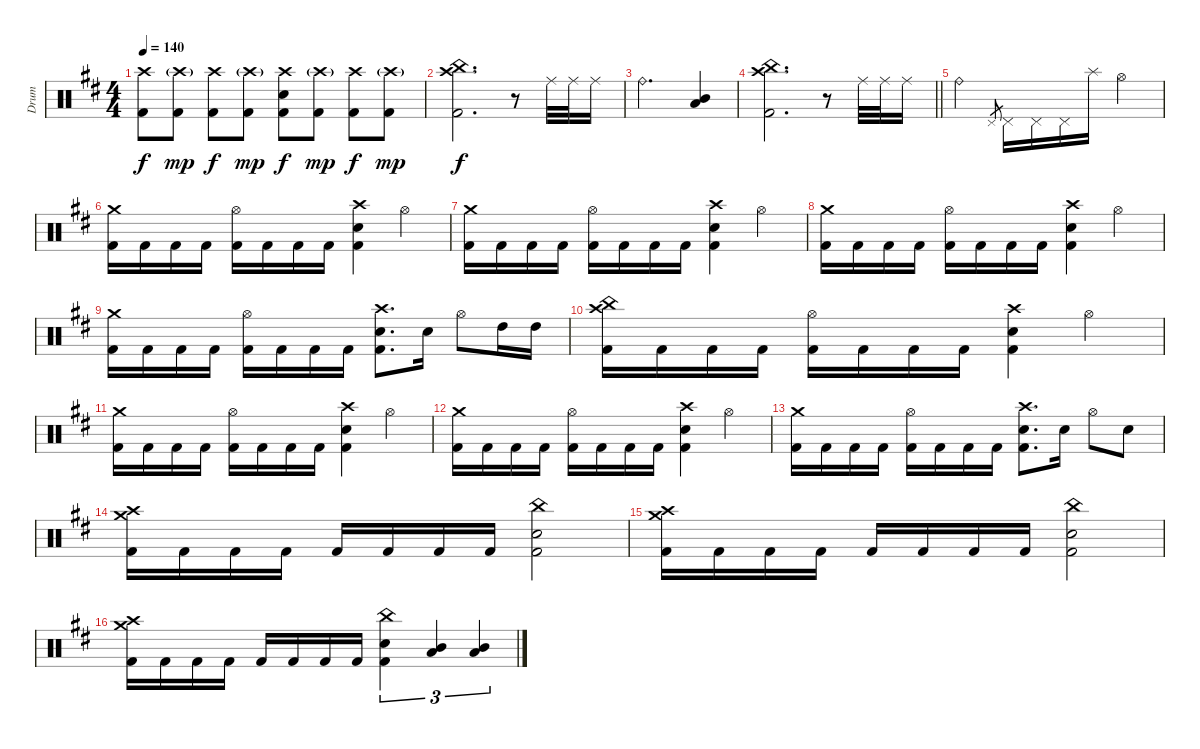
\track ("Drum" "Drum") {instrument percussion}
\staff {score}
\articulation defaults
\ts (4 4)
\tempo 140
\clef neutral
\ks bminor
("Crash high (hit)" "Kick (hit) 2").8{dy f} ("Crash high (hit)"{g} "Kick (hit) 2").8{dy mp} ("Crash high (hit)" "Kick (hit) 2").8{dy f} ("Crash high (hit)"{g} "Kick (hit) 2").8{dy mp} ("Crash high (hit)" "Snare (hit) 2" "Kick (hit) 2").8{dy f} ("Crash high (hit)"{g} "Kick (hit) 2").8{dy mp} ("Crash high (hit)" "Kick (hit) 2").8{dy f} ("Crash high (hit)"{g} "Kick (hit) 2").8{dy mp} |
("Crash high (hit)" "China (hit)" "Kick (hit) 2").2{d dy f} r.8 "Ride (middle)".32 "Ride (middle)".32 "Ride (middle)".16 |
"Ride (bell)".2{d} ("Low Tom (hit)" "Mid Tom (hit)").4 |
\barLineRight lightlight
("Crash high (hit)" "China (hit)" "Kick (hit) 2").2{d} r.8 "Ride (middle)".32 "Ride (middle)".32 "Ride (middle)".16 |
"Ride (bell)".2 "Pedal Hi-Hat (hit)".8{gr} "Pedal Hi-Hat (hit)".16 "Pedal Hi-Hat (hit)".16 "Pedal Hi-Hat (hit)".16 "Splash (hit)".16 "Hi-Hat (open)".4 |
("Crash medium (hit)" "Kick (hit) 2").16 "Kick (hit) 2".16 "Kick (hit) 2".16 "Kick (hit) 2".16 ("Hi-Hat (open)" "Kick (hit) 2").16 "Kick (hit) 2".16 "Kick (hit) 2".16 "Kick (hit) 2".16 ("Crash high (hit)" "Snare (hit) 2" "Kick (hit) 2").4 "Hi-Hat (open)".4 |
("Crash medium (hit)" "Kick (hit) 2").16 "Kick (hit) 2".16 "Kick (hit) 2".16 "Kick (hit) 2".16 ("Hi-Hat (open)" "Kick (hit) 2").16 "Kick (hit) 2".16 "Kick (hit) 2".16 "Kick (hit) 2".16 ("Crash high (hit)" "Snare (hit) 2" "Kick (hit) 2").4 "Hi-Hat (open)".4 |
("Crash medium (hit)" "Kick (hit) 2").16 "Kick (hit) 2".16 "Kick (hit) 2".16 "Kick (hit) 2".16 ("Hi-Hat (open)" "Kick (hit) 2").16 "Kick (hit) 2".16 "Kick (hit) 2".16 "Kick (hit) 2".16 ("Crash high (hit)" "Snare (hit) 2" "Kick (hit) 2").4 "Hi-Hat (open)".4 |
("Crash medium (hit)" "Kick (hit) 2").16 "Kick (hit) 2".16 "Kick (hit) 2".16 "Kick (hit) 2".16 ("Hi-Hat (open)" "Kick (hit) 2").16 "Kick (hit) 2".16 "Kick (hit) 2".16 "Kick (hit) 2".16 ("Crash high (hit)" "Snare (hit) 2" "Kick (hit) 2").8{d} "Snare (hit) 2".16 "Hi-Hat (open)".8 "High Tom (hit)".16 "High Tom (hit)".16 |
("Crash high (hit)" "China (hit)" "Kick (hit) 2").16 "Kick (hit) 2".16 "Kick (hit) 2".16 "Kick (hit) 2".16 ("Hi-Hat (open)" "Kick (hit) 2").16 "Kick (hit) 2".16 "Kick (hit) 2".16 "Kick (hit) 2".16 ("Crash high (hit)" "Snare (hit) 2" "Kick (hit) 2").4 "Hi-Hat (open)".4 |
("Crash medium (hit)" "Kick (hit) 2").16 "Kick (hit) 2".16 "Kick (hit) 2".16 "Kick (hit) 2".16 ("Hi-Hat (open)" "Kick (hit) 2").16 "Kick (hit) 2".16 "Kick (hit) 2".16 "Kick (hit) 2".16 ("Crash high (hit)" "Snare (hit) 2" "Kick (hit) 2").4 "Hi-Hat (open)".4 |
("Crash medium (hit)" "Kick (hit) 2").16 "Kick (hit) 2".16 "Kick (hit) 2".16 "Kick (hit) 2".16 ("Hi-Hat (open)" "Kick (hit) 2").16 "Kick (hit) 2".16 "Kick (hit) 2".16 "Kick (hit) 2".16 ("Crash high (hit)" "Snare (hit) 2" "Kick (hit) 2").4 "Hi-Hat (open)".4 |
("Crash medium (hit)" "Kick (hit) 2").16 "Kick (hit) 2".16 "Kick (hit) 2".16 "Kick (hit) 2".16 ("Hi-Hat (open)" "Kick (hit) 2").16 "Kick (hit) 2".16 "Kick (hit) 2".16 "Kick (hit) 2".16 ("Crash high (hit)" "Snare (hit) 2" "Kick (hit) 2").8{d} "Snare (hit) 2".16 "Hi-Hat (open)".8 "Snare (hit) 2".8 |
("Crash medium (hit)" "Crash high (hit)" "Kick (hit) 2").16 "Kick (hit) 2".16 "Kick (hit) 2".16 "Kick (hit) 2".16 "Kick (hit) 2".16 "Kick (hit) 2".16 "Kick (hit) 2".16 "Kick (hit) 2".16 ("China (hit)" "Snare (hit) 2" "Kick (hit) 2").2 |
("Crash medium (hit)" "Crash high (hit)" "Kick (hit) 2").16 "Kick (hit) 2".16 "Kick (hit) 2".16 "Kick (hit) 2".16 "Kick (hit) 2".16 "Kick (hit) 2".16 "Kick (hit) 2".16 "Kick (hit) 2".16 ("China (hit)" "Snare (hit) 2" "Kick (hit) 2").2 |
("Crash medium (hit)" "Crash high (hit)" "Kick (hit) 2").16 "Kick (hit) 2".16 "Kick (hit) 2".16 "Kick (hit) 2".16 "Kick (hit) 2".16 "Kick (hit) 2".16 "Kick (hit) 2".16 "Kick (hit) 2".16 ("China (hit)" "Snare (hit) 2" "Kick (hit) 2").4{tu (3 2)} ("Low Tom (hit)" "Mid Tom (hit)").4{tu (3 2)} ("Low Tom (hit)" "Mid Tom (hit)").4{tu (3 2)}
